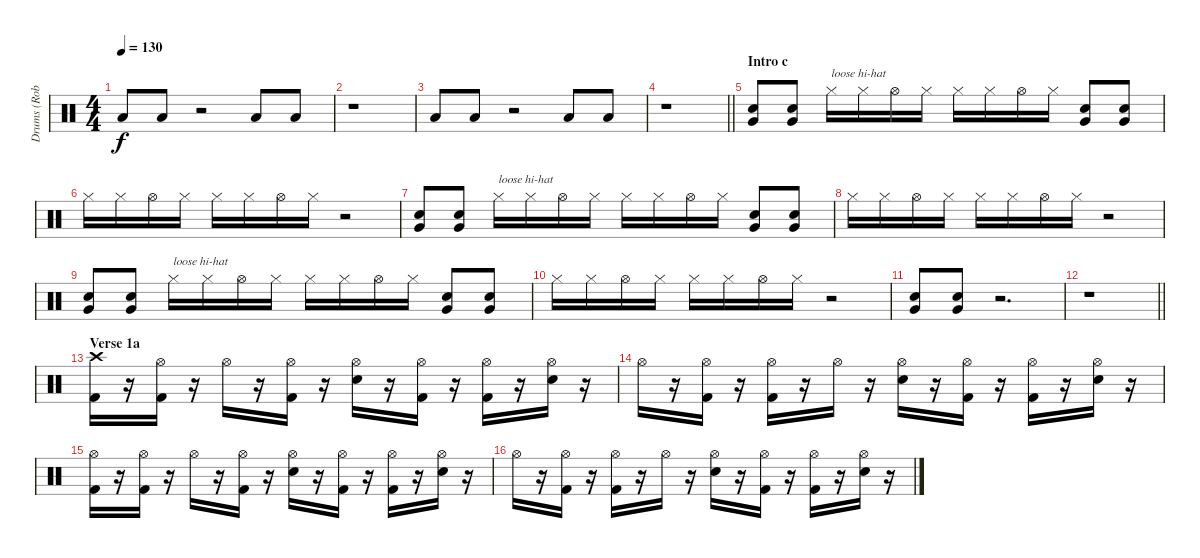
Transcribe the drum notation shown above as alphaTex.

\track ("Drums (Rob)" "Drums (Rob") {instrument percussion}
\staff {score}
\articulation defaults
\ts (4 4)
\tempo 130
\clef neutral
\ks c "Low Floor Tom (hit)".8{dy f} "Low Floor Tom (hit)".8
r.2 "Low Floor Tom (hit)".8 "Low Floor Tom (hit)".8 |
r.1 |
"Low Floor Tom (hit)".8 "Low Floor Tom (hit)".8 r.2 "Low Floor Tom (hit)".8 "Low Floor Tom (hit)".8 |
\barLineRight lightlight
r.1 |
\section ("" "Intro c")
("Electric Snare (hit)" "Very Low Tom (hit)").8 ("Electric Snare (hit)" "Very Low Tom (hit)").8 "Hi-Hat (closed)".16{txt "loose hi-hat"} "Hi-Hat (closed)".16 "Hi-Hat (open)".16 "Hi-Hat (closed)".16 "Hi-Hat (closed)".16 "Hi-Hat (closed)".16 "Hi-Hat (open)".16 "Hi-Hat (closed)".16 ("Electric Snare (hit)" "Very Low Tom (hit)").8 ("Electric Snare (hit)" "Very Low Tom (hit)").8 |
"Hi-Hat (closed)".16 "Hi-Hat (closed)".16 "Hi-Hat (open)".16 "Hi-Hat (closed)".16 "Hi-Hat (closed)".16 "Hi-Hat (closed)".16 "Hi-Hat (open)".16 "Hi-Hat (closed)".16 r.2 |
("Electric Snare (hit)" "Very Low Tom (hit)").8 ("Electric Snare (hit)" "Very Low Tom (hit)").8 "Hi-Hat (closed)".16{txt "loose hi-hat"} "Hi-Hat (closed)".16 "Hi-Hat (open)".16 "Hi-Hat (closed)".16 "Hi-Hat (closed)".16 "Hi-Hat (closed)".16 "Hi-Hat (open)".16 "Hi-Hat (closed)".16 ("Electric Snare (hit)" "Very Low Tom (hit)").8 ("Electric Snare (hit)" "Very Low Tom (hit)").8 |
"Hi-Hat (closed)".16 "Hi-Hat (closed)".16 "Hi-Hat (open)".16 "Hi-Hat (closed)".16 "Hi-Hat (closed)".16 "Hi-Hat (closed)".16 "Hi-Hat (open)".16 "Hi-Hat (closed)".16 r.2 |
("Electric Snare (hit)" "Very Low Tom (hit)").8 ("Electric Snare (hit)" "Very Low Tom (hit)").8 "Hi-Hat (closed)".16{txt "loose hi-hat"} "Hi-Hat (closed)".16 "Hi-Hat (open)".16 "Hi-Hat (closed)".16 "Hi-Hat (closed)".16 "Hi-Hat (closed)".16 "Hi-Hat (open)".16 "Hi-Hat (closed)".16 ("Electric Snare (hit)" "Very Low Tom (hit)").8 ("Electric Snare (hit)" "Very Low Tom (hit)").8 |
"Hi-Hat (closed)".16 "Hi-Hat (closed)".16 "Hi-Hat (open)".16 "Hi-Hat (closed)".16 "Hi-Hat (closed)".16 "Hi-Hat (closed)".16 "Hi-Hat (open)".16 "Hi-Hat (closed)".16 r.2 |
("Electric Snare (hit)" "Very Low Tom (hit)").8 ("Electric Snare (hit)" "Very Low Tom (hit)").8 r.2{d} |
\barLineRight lightlight
r.1 |
\section ("" "Verse 1a")
("Crash high (hit)" "Kick (hit) 2").16 r.16 ("Hi-Hat (open)" "Kick (hit) 2").16 r.16 "Hi-Hat (open)".16 r.16 ("Hi-Hat (open)" "Kick (hit) 2").16 r.16 ("Hi-Hat (open)" "Electric Snare (hit)").16 r.16 ("Hi-Hat (open)" "Kick (hit) 2").16 r.16 ("Hi-Hat (open)" "Kick (hit) 2").16 r.16 ("Hi-Hat (open)" "Electric Snare (hit)").16 r.16 |
"Hi-Hat (open)".16 r.16 ("Hi-Hat (open)" "Kick (hit) 2").16 r.16 ("Hi-Hat (open)" "Kick (hit) 2").16 r.16 "Hi-Hat (open)".16 r.16 ("Hi-Hat (open)" "Electric Snare (hit)").16 r.16 ("Hi-Hat (open)" "Kick (hit) 2").16 r.16 ("Hi-Hat (open)" "Kick (hit) 2").16 r.16 ("Hi-Hat (open)" "Electric Snare (hit)").16 r.16 |
("Hi-Hat (open)" "Kick (hit) 2").16 r.16 ("Hi-Hat (open)" "Kick (hit) 2").16 r.16 "Hi-Hat (open)".16 r.16 ("Hi-Hat (open)" "Kick (hit) 2").16 r.16 ("Hi-Hat (open)" "Electric Snare (hit)").16 r.16 ("Hi-Hat (open)" "Kick (hit) 2").16 r.16 ("Hi-Hat (open)" "Kick (hit) 2").16 r.16 ("Hi-Hat (open)" "Electric Snare (hit)").16 r.16 |
"Hi-Hat (open)".16 r.16 ("Hi-Hat (open)" "Kick (hit) 2").16 r.16 ("Hi-Hat (open)" "Kick (hit) 2").16 r.16 "Hi-Hat (open)".16 r.16 ("Hi-Hat (open)" "Electric Snare (hit)").16 r.16 ("Hi-Hat (open)" "Kick (hit) 2").16 r.16 ("Hi-Hat (open)" "Kick (hit) 2").16 r.16 ("Hi-Hat (open)" "Electric Snare (hit)").16 r.16
